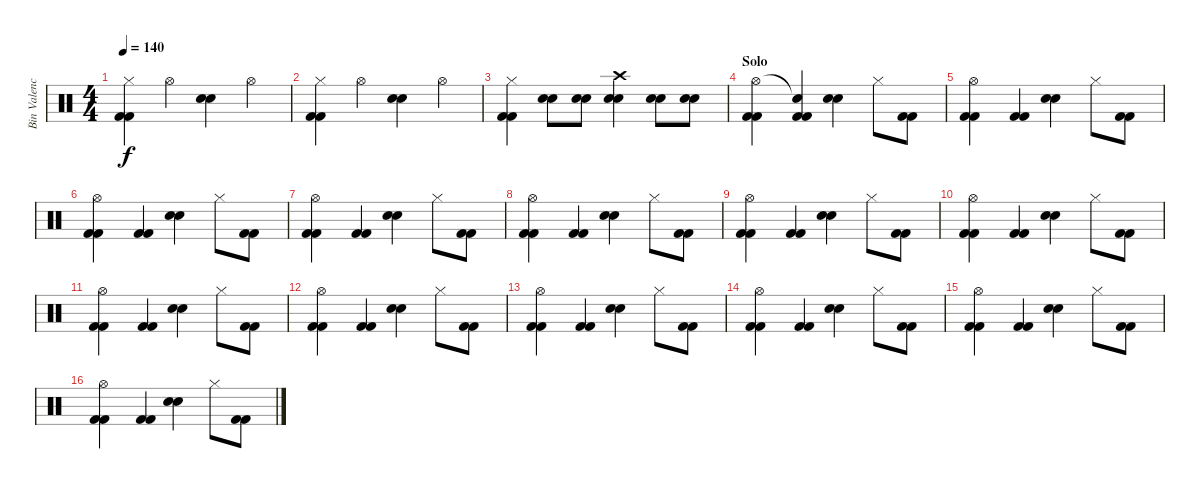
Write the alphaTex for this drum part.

\track ("Bin Valencia (Bateria)" "Bin Valenc") {instrument percussion}
\staff {score}
\articulation defaults
\ts (4 4)
\tempo 140
\clef neutral
\ks c
("Hi-Hat (closed)" "Kick (hit) 2" "Kick (hit) 2").4{dy f} "Hi-Hat (open)".4 ("Snare (hit) 2" "Snare (hit) 2").4 "Hi-Hat (open)".4 |
("Hi-Hat (closed)" "Kick (hit) 2" "Kick (hit) 2").4 "Hi-Hat (open)".4 ("Snare (hit) 2" "Snare (hit) 2").4 "Hi-Hat (open)".4 |
("Hi-Hat (closed)" "Kick (hit) 2" "Kick (hit) 2").4 ("Snare (hit) 2" "Snare (hit) 2").8 ("Snare (hit) 2" "Snare (hit) 2").8 ("Crash high (hit)" "Snare (hit) 2" "Snare (hit) 2").4 ("Snare (hit) 2" "Snare (hit) 2").8 ("Snare (hit) 2" "Snare (hit) 2").8 |
\section ("" "Solo")
("Hi-Hat (open)" "Kick (hit) 2" "Kick (hit) 2").4 ("Snare (hit)"{t} "Kick (hit) 2" "Kick (hit) 2").4 ("Snare (hit) 2" "Snare (hit) 2").4 "Hi-Hat (closed)".8 ("Kick (hit) 2" "Kick (hit) 2").8 |
("Hi-Hat (open)" "Kick (hit) 2" "Kick (hit) 2").4 ("Kick (hit) 2" "Kick (hit) 2").4 ("Snare (hit) 2" "Snare (hit) 2").4 "Hi-Hat (closed)".8 ("Kick (hit) 2" "Kick (hit) 2").8 |
("Hi-Hat (open)" "Kick (hit) 2" "Kick (hit) 2").4 ("Kick (hit) 2" "Kick (hit) 2").4 ("Snare (hit) 2" "Snare (hit) 2").4 "Hi-Hat (closed)".8 ("Kick (hit) 2" "Kick (hit) 2").8 |
("Hi-Hat (open)" "Kick (hit) 2" "Kick (hit) 2").4 ("Kick (hit) 2" "Kick (hit) 2").4 ("Snare (hit) 2" "Snare (hit) 2").4 "Hi-Hat (closed)".8 ("Kick (hit) 2" "Kick (hit) 2").8 |
("Hi-Hat (open)" "Kick (hit) 2" "Kick (hit) 2").4 ("Kick (hit) 2" "Kick (hit) 2").4 ("Snare (hit) 2" "Snare (hit) 2").4 "Hi-Hat (closed)".8 ("Kick (hit) 2" "Kick (hit) 2").8 |
("Hi-Hat (open)" "Kick (hit) 2" "Kick (hit) 2").4 ("Kick (hit) 2" "Kick (hit) 2").4 ("Snare (hit) 2" "Snare (hit) 2").4 "Hi-Hat (closed)".8 ("Kick (hit) 2" "Kick (hit) 2").8 |
("Hi-Hat (open)" "Kick (hit) 2" "Kick (hit) 2").4 ("Kick (hit) 2" "Kick (hit) 2").4 ("Snare (hit) 2" "Snare (hit) 2").4 "Hi-Hat (closed)".8 ("Kick (hit) 2" "Kick (hit) 2").8 |
("Hi-Hat (open)" "Kick (hit) 2" "Kick (hit) 2").4 ("Kick (hit) 2" "Kick (hit) 2").4 ("Snare (hit) 2" "Snare (hit) 2").4 "Hi-Hat (closed)".8 ("Kick (hit) 2" "Kick (hit) 2").8 |
("Hi-Hat (open)" "Kick (hit) 2" "Kick (hit) 2").4 ("Kick (hit) 2" "Kick (hit) 2").4 ("Snare (hit) 2" "Snare (hit) 2").4 "Hi-Hat (closed)".8 ("Kick (hit) 2" "Kick (hit) 2").8 |
("Hi-Hat (open)" "Kick (hit) 2" "Kick (hit) 2").4 ("Kick (hit) 2" "Kick (hit) 2").4 ("Snare (hit) 2" "Snare (hit) 2").4 "Hi-Hat (closed)".8 ("Kick (hit) 2" "Kick (hit) 2").8 |
("Hi-Hat (open)" "Kick (hit) 2" "Kick (hit) 2").4 ("Kick (hit) 2" "Kick (hit) 2").4 ("Snare (hit) 2" "Snare (hit) 2").4 "Hi-Hat (closed)".8 ("Kick (hit) 2" "Kick (hit) 2").8 |
("Hi-Hat (open)" "Kick (hit) 2" "Kick (hit) 2").4 ("Kick (hit) 2" "Kick (hit) 2").4 ("Snare (hit) 2" "Snare (hit) 2").4 "Hi-Hat (closed)".8 ("Kick (hit) 2" "Kick (hit) 2").8 |
("Hi-Hat (open)" "Kick (hit) 2" "Kick (hit) 2").4 ("Kick (hit) 2" "Kick (hit) 2").4 ("Snare (hit) 2" "Snare (hit) 2").4 "Hi-Hat (closed)".8 ("Kick (hit) 2" "Kick (hit) 2").8
